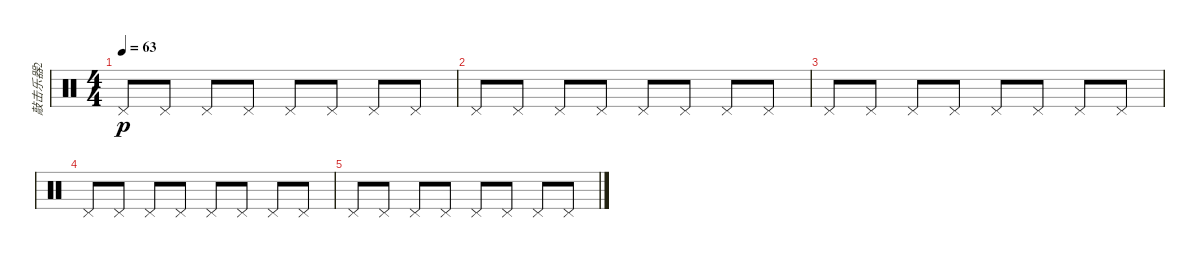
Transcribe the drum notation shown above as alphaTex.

\track ("敲击乐器2" "敲击乐器2") {instrument percussion}
\staff {score}
\articulation defaults
\ts (4 4)
\tempo 63
\clef neutral
\ks c "Pedal Hi-Hat (hit)".8{dy p} "Pedal Hi-Hat (hit)".8 "Pedal Hi-Hat (hit)".8 "Pedal Hi-Hat (hit)".8 "Pedal Hi-Hat (hit)".8 "Pedal Hi-Hat (hit)".8 "Pedal Hi-Hat (hit)".8 "Pedal Hi-Hat (hit)".8
|
"Pedal Hi-Hat (hit)".8 "Pedal Hi-Hat (hit)".8 "Pedal Hi-Hat (hit)".8 "Pedal Hi-Hat (hit)".8 "Pedal Hi-Hat (hit)".8 "Pedal Hi-Hat (hit)".8 "Pedal Hi-Hat (hit)".8 "Pedal Hi-Hat (hit)".8 |
"Pedal Hi-Hat (hit)".8 "Pedal Hi-Hat (hit)".8 "Pedal Hi-Hat (hit)".8 "Pedal Hi-Hat (hit)".8 "Pedal Hi-Hat (hit)".8 "Pedal Hi-Hat (hit)".8 "Pedal Hi-Hat (hit)".8 "Pedal Hi-Hat (hit)".8 |
"Pedal Hi-Hat (hit)".8 "Pedal Hi-Hat (hit)".8 "Pedal Hi-Hat (hit)".8 "Pedal Hi-Hat (hit)".8 "Pedal Hi-Hat (hit)".8 "Pedal Hi-Hat (hit)".8 "Pedal Hi-Hat (hit)".8 "Pedal Hi-Hat (hit)".8 |
"Pedal Hi-Hat (hit)".8 "Pedal Hi-Hat (hit)".8 "Pedal Hi-Hat (hit)".8 "Pedal Hi-Hat (hit)".8 "Pedal Hi-Hat (hit)".8 "Pedal Hi-Hat (hit)".8 "Pedal Hi-Hat (hit)".8 "Pedal Hi-Hat (hit)".8
